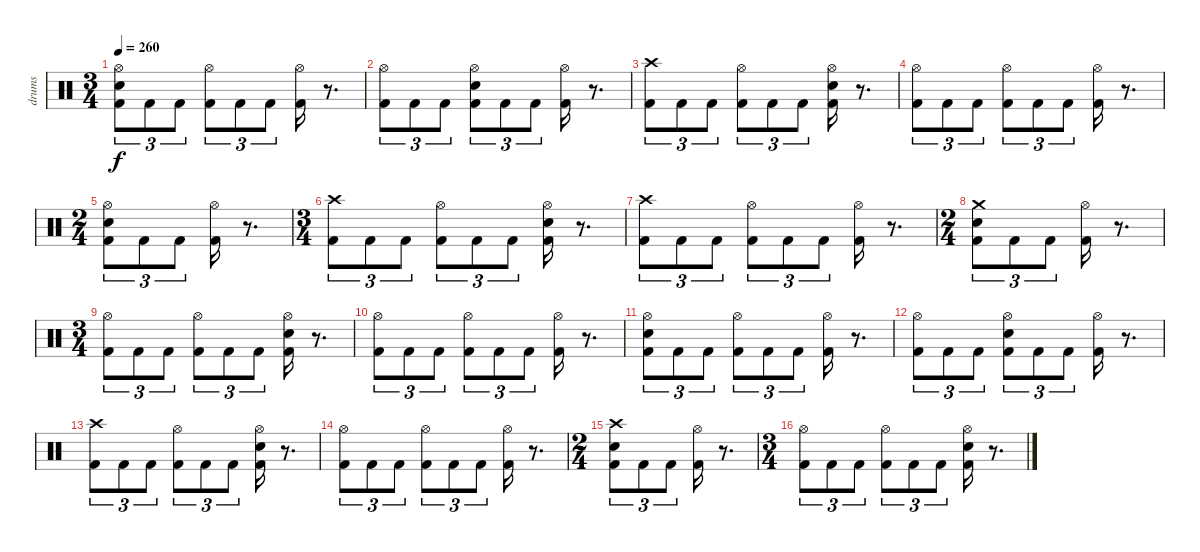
\track ("drums" "drums") {instrument percussion}
\staff {score}
\articulation defaults
\ts (3 4)
\tempo 260
\clef neutral
\ks c
("Kick (hit) 2" "Snare (hit) 2" "Hi-Hat (open)").8{tu (3 2) dy f} "Kick (hit) 2".8{tu (3 2)} "Kick (hit) 2".8{tu (3 2)} ("Kick (hit) 2" "Hi-Hat (open)").8{tu (3 2)} "Kick (hit) 2".8{tu (3 2)} "Kick (hit) 2".8{tu (3 2)} ("Kick (hit) 2" "Hi-Hat (open)").16 r.8{d} |
("Kick (hit) 2" "Hi-Hat (open)").8{tu (3 2)} "Kick (hit) 2".8{tu (3 2)} "Kick (hit) 2".8{tu (3 2)} ("Kick (hit) 2" "Snare (hit) 2" "Hi-Hat (open)").8{tu (3 2)} "Kick (hit) 2".8{tu (3 2)} "Kick (hit) 2".8{tu (3 2)} ("Kick (hit) 2" "Hi-Hat (open)").16 r.8{d} |
("Kick (hit) 2" "Crash high (hit)").8{tu (3 2)} "Kick (hit) 2".8{tu (3 2)} "Kick (hit) 2".8{tu (3 2)} ("Kick (hit) 2" "Hi-Hat (open)").8{tu (3 2)} "Kick (hit) 2".8{tu (3 2)} "Kick (hit) 2".8{tu (3 2)} ("Kick (hit) 2" "Snare (hit) 2" "Hi-Hat (open)").16 r.8{d} |
("Kick (hit) 2" "Hi-Hat (open)").8{tu (3 2)} "Kick (hit) 2".8{tu (3 2)} "Kick (hit) 2".8{tu (3 2)} ("Kick (hit) 2" "Hi-Hat (open)").8{tu (3 2)} "Kick (hit) 2".8{tu (3 2)} "Kick (hit) 2".8{tu (3 2)} ("Kick (hit) 2" "Hi-Hat (open)").16 r.8{d} |
\ts (2 4)
("Kick (hit) 2" "Snare (hit) 2" "Hi-Hat (open)").8{tu (3 2)} "Kick (hit) 2".8{tu (3 2)} "Kick (hit) 2".8{tu (3 2)} ("Kick (hit) 2" "Hi-Hat (open)").16 r.8{d} |
\ts (3 4)
("Kick (hit) 2" "Crash high (hit)").8{tu (3 2)} "Kick (hit) 2".8{tu (3 2)} "Kick (hit) 2".8{tu (3 2)} ("Kick (hit) 2" "Hi-Hat (open)").8{tu (3 2)} "Kick (hit) 2".8{tu (3 2)} "Kick (hit) 2".8{tu (3 2)} ("Kick (hit) 2" "Snare (hit) 2" "Hi-Hat (open)").16 r.8{d} |
("Kick (hit) 2" "Crash high (hit)").8{tu (3 2)} "Kick (hit) 2".8{tu (3 2)} "Kick (hit) 2".8{tu (3 2)} ("Kick (hit) 2" "Hi-Hat (open)").8{tu (3 2)} "Kick (hit) 2".8{tu (3 2)} "Kick (hit) 2".8{tu (3 2)} ("Kick (hit) 2" "Hi-Hat (open)").16 r.8{d} |
\ts (2 4)
("Kick (hit) 2" "Snare (hit) 2" "Crash medium (hit)").8{tu (3 2)} "Kick (hit) 2".8{tu (3 2)} "Kick (hit) 2".8{tu (3 2)} ("Kick (hit) 2" "Hi-Hat (open)").16 r.8{d} |
\ts (3 4)
("Kick (hit) 2" "Hi-Hat (open)").8{tu (3 2)} "Kick (hit) 2".8{tu (3 2)} "Kick (hit) 2".8{tu (3 2)} ("Kick (hit) 2" "Hi-Hat (open)").8{tu (3 2)} "Kick (hit) 2".8{tu (3 2)} "Kick (hit) 2".8{tu (3 2)} ("Kick (hit) 2" "Snare (hit) 2" "Hi-Hat (open)").16 r.8{d} |
("Kick (hit) 2" "Hi-Hat (open)").8{tu (3 2)} "Kick (hit) 2".8{tu (3 2)} "Kick (hit) 2".8{tu (3 2)} ("Kick (hit) 2" "Hi-Hat (open)").8{tu (3 2)} "Kick (hit) 2".8{tu (3 2)} "Kick (hit) 2".8{tu (3 2)} ("Kick (hit) 2" "Hi-Hat (open)").16 r.8{d} |
("Kick (hit) 2" "Snare (hit) 2" "Hi-Hat (open)").8{tu (3 2)} "Kick (hit) 2".8{tu (3 2)} "Kick (hit) 2".8{tu (3 2)} ("Kick (hit) 2" "Hi-Hat (open)").8{tu (3 2)} "Kick (hit) 2".8{tu (3 2)} "Kick (hit) 2".8{tu (3 2)} ("Kick (hit) 2" "Hi-Hat (open)").16 r.8{d} |
("Kick (hit) 2" "Hi-Hat (open)").8{tu (3 2)} "Kick (hit) 2".8{tu (3 2)} "Kick (hit) 2".8{tu (3 2)} ("Kick (hit) 2" "Snare (hit) 2" "Hi-Hat (open)").8{tu (3 2)} "Kick (hit) 2".8{tu (3 2)} "Kick (hit) 2".8{tu (3 2)} ("Kick (hit) 2" "Hi-Hat (open)").16 r.8{d} |
("Kick (hit) 2" "Crash high (hit)").8{tu (3 2)} "Kick (hit) 2".8{tu (3 2)} "Kick (hit) 2".8{tu (3 2)} ("Kick (hit) 2" "Hi-Hat (open)").8{tu (3 2)} "Kick (hit) 2".8{tu (3 2)} "Kick (hit) 2".8{tu (3 2)} ("Kick (hit) 2" "Snare (hit) 2" "Hi-Hat (open)").16 r.8{d} |
("Kick (hit) 2" "Hi-Hat (open)").8{tu (3 2)} "Kick (hit) 2".8{tu (3 2)} "Kick (hit) 2".8{tu (3 2)} ("Kick (hit) 2" "Hi-Hat (open)").8{tu (3 2)} "Kick (hit) 2".8{tu (3 2)} "Kick (hit) 2".8{tu (3 2)} ("Kick (hit) 2" "Hi-Hat (open)").16 r.8{d} |
\ts (2 4)
("Kick (hit) 2" "Snare (hit) 2" "Crash high (hit)").8{tu (3 2)} "Kick (hit) 2".8{tu (3 2)} "Kick (hit) 2".8{tu (3 2)} ("Kick (hit) 2" "Hi-Hat (open)").16 r.8{d} |
\ts (3 4)
("Kick (hit) 2" "Hi-Hat (open)").8{tu (3 2)} "Kick (hit) 2".8{tu (3 2)} "Kick (hit) 2".8{tu (3 2)} ("Kick (hit) 2" "Hi-Hat (open)").8{tu (3 2)} "Kick (hit) 2".8{tu (3 2)} "Kick (hit) 2".8{tu (3 2)} ("Kick (hit) 2" "Snare (hit) 2" "Hi-Hat (open)").16 r.8{d}
